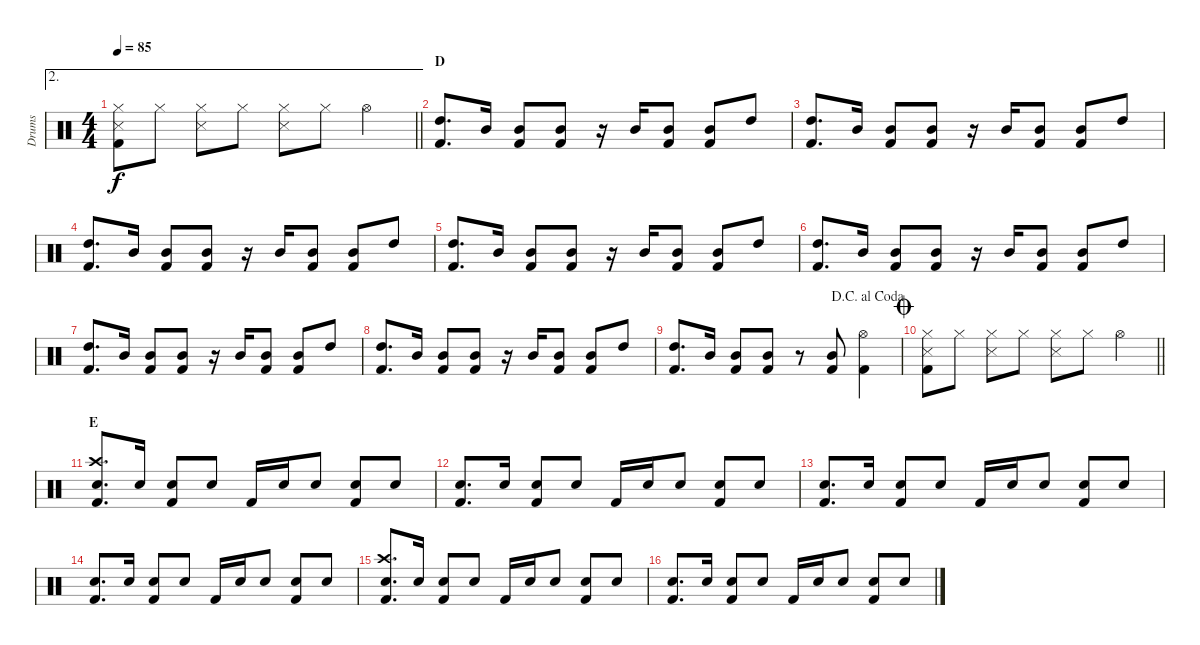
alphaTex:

\track ("Drums" "Drums") {instrument percussion}
\staff {score}
\articulation defaults
\ae 2
\ts (4 4)
\tempo 85
\clef neutral
\barLineRight lightlight
\ks c
("Hi-Hat (closed)" "Snare (side stick) 3" "Kick (hit) 2").8{dy f} "Hi-Hat (closed)".8 ("Hi-Hat (closed)" "Snare (side stick) 3").8 "Hi-Hat (closed)".8 ("Hi-Hat (closed)" "Snare (side stick) 3").8 "Hi-Hat (closed)".8 "Hi-Hat (open)".4 |
\section ("" "D")
("High Tom (hit)" "Kick (hit) 2").8{d} "Mid Tom (hit)".16 ("Mid Tom (hit)" "Kick (hit) 2").8 ("Mid Tom (hit)" "Kick (hit) 2").8 r.16 "Mid Tom (hit)".16 ("Mid Tom (hit)" "Kick (hit) 2").8 ("Mid Tom (hit)" "Kick (hit) 2").8 "High Tom (hit)".8 |
("High Tom (hit)" "Kick (hit) 2").8{d} "Mid Tom (hit)".16 ("Mid Tom (hit)" "Kick (hit) 2").8 ("Mid Tom (hit)" "Kick (hit) 2").8 r.16 "Mid Tom (hit)".16 ("Mid Tom (hit)" "Kick (hit) 2").8 ("Mid Tom (hit)" "Kick (hit) 2").8 "High Tom (hit)".8 |
("High Tom (hit)" "Kick (hit) 2").8{d} "Mid Tom (hit)".16 ("Mid Tom (hit)" "Kick (hit) 2").8 ("Mid Tom (hit)" "Kick (hit) 2").8 r.16 "Mid Tom (hit)".16 ("Mid Tom (hit)" "Kick (hit) 2").8 ("Mid Tom (hit)" "Kick (hit) 2").8 "High Tom (hit)".8 |
("High Tom (hit)" "Kick (hit) 2").8{d} "Mid Tom (hit)".16 ("Mid Tom (hit)" "Kick (hit) 2").8 ("Mid Tom (hit)" "Kick (hit) 2").8 r.16 "Mid Tom (hit)".16 ("Mid Tom (hit)" "Kick (hit) 2").8 ("Mid Tom (hit)" "Kick (hit) 2").8 "High Tom (hit)".8 |
("High Tom (hit)" "Kick (hit) 2").8{d} "Mid Tom (hit)".16 ("Mid Tom (hit)" "Kick (hit) 2").8 ("Mid Tom (hit)" "Kick (hit) 2").8 r.16 "Mid Tom (hit)".16 ("Mid Tom (hit)" "Kick (hit) 2").8 ("Mid Tom (hit)" "Kick (hit) 2").8 "High Tom (hit)".8 |
("High Tom (hit)" "Kick (hit) 2").8{d} "Mid Tom (hit)".16 ("Mid Tom (hit)" "Kick (hit) 2").8 ("Mid Tom (hit)" "Kick (hit) 2").8 r.16 "Mid Tom (hit)".16 ("Mid Tom (hit)" "Kick (hit) 2").8 ("Mid Tom (hit)" "Kick (hit) 2").8 "High Tom (hit)".8 |
("High Tom (hit)" "Kick (hit) 2").8{d} "Mid Tom (hit)".16 ("Mid Tom (hit)" "Kick (hit) 2").8 ("Mid Tom (hit)" "Kick (hit) 2").8 r.16 "Mid Tom (hit)".16 ("Mid Tom (hit)" "Kick (hit) 2").8 ("Mid Tom (hit)" "Kick (hit) 2").8 "High Tom (hit)".8 |
\jump dacapoalcoda
("High Tom (hit)" "Kick (hit) 2").8{d} "Mid Tom (hit)".16 ("Mid Tom (hit)" "Kick (hit) 2").8 ("Mid Tom (hit)" "Kick (hit) 2").8 r.8 ("Mid Tom (hit)" "Kick (hit) 2").8 ("Hi-Hat (open)" "Kick (hit) 2").4 |
\jump coda
\barLineRight lightlight
("Hi-Hat (closed)" "Snare (side stick) 3" "Kick (hit) 2").8 "Hi-Hat (closed)".8 ("Hi-Hat (closed)" "Snare (side stick) 3").8 "Hi-Hat (closed)".8 ("Hi-Hat (closed)" "Snare (side stick) 3").8 "Hi-Hat (closed)".8 "Hi-Hat (open)".4 |
\section ("" "E")
("Crash high (hit)" "Electric Snare (hit)" "Kick (hit) 2").8{d} "Electric Snare (hit)".16 ("Electric Snare (hit)" "Kick (hit) 2").8 "Electric Snare (hit)".8 "Kick (hit) 2".16 "Electric Snare (hit)".16 "Electric Snare (hit)".8 ("Electric Snare (hit)" "Kick (hit) 2").8 "Electric Snare (hit)".8 |
("Electric Snare (hit)" "Kick (hit) 2").8{d} "Electric Snare (hit)".16 ("Electric Snare (hit)" "Kick (hit) 2").8 "Electric Snare (hit)".8 "Kick (hit) 2".16 "Electric Snare (hit)".16 "Electric Snare (hit)".8 ("Electric Snare (hit)" "Kick (hit) 2").8 "Electric Snare (hit)".8 |
("Electric Snare (hit)" "Kick (hit) 2").8{d} "Electric Snare (hit)".16 ("Electric Snare (hit)" "Kick (hit) 2").8 "Electric Snare (hit)".8 "Kick (hit) 2".16 "Electric Snare (hit)".16 "Electric Snare (hit)".8 ("Electric Snare (hit)" "Kick (hit) 2").8 "Electric Snare (hit)".8 |
("Electric Snare (hit)" "Kick (hit) 2").8{d} "Electric Snare (hit)".16 ("Electric Snare (hit)" "Kick (hit) 2").8 "Electric Snare (hit)".8 "Kick (hit) 2".16 "Electric Snare (hit)".16 "Electric Snare (hit)".8 ("Electric Snare (hit)" "Kick (hit) 2").8 "Electric Snare (hit)".8 |
("Crash high (hit)" "Electric Snare (hit)" "Kick (hit) 2").8{d} "Electric Snare (hit)".16 ("Electric Snare (hit)" "Kick (hit) 2").8 "Electric Snare (hit)".8 "Kick (hit) 2".16 "Electric Snare (hit)".16 "Electric Snare (hit)".8 ("Electric Snare (hit)" "Kick (hit) 2").8 "Electric Snare (hit)".8 |
("Electric Snare (hit)" "Kick (hit) 2").8{d} "Electric Snare (hit)".16 ("Electric Snare (hit)" "Kick (hit) 2").8 "Electric Snare (hit)".8 "Kick (hit) 2".16 "Electric Snare (hit)".16 "Electric Snare (hit)".8 ("Electric Snare (hit)" "Kick (hit) 2").8 "Electric Snare (hit)".8
